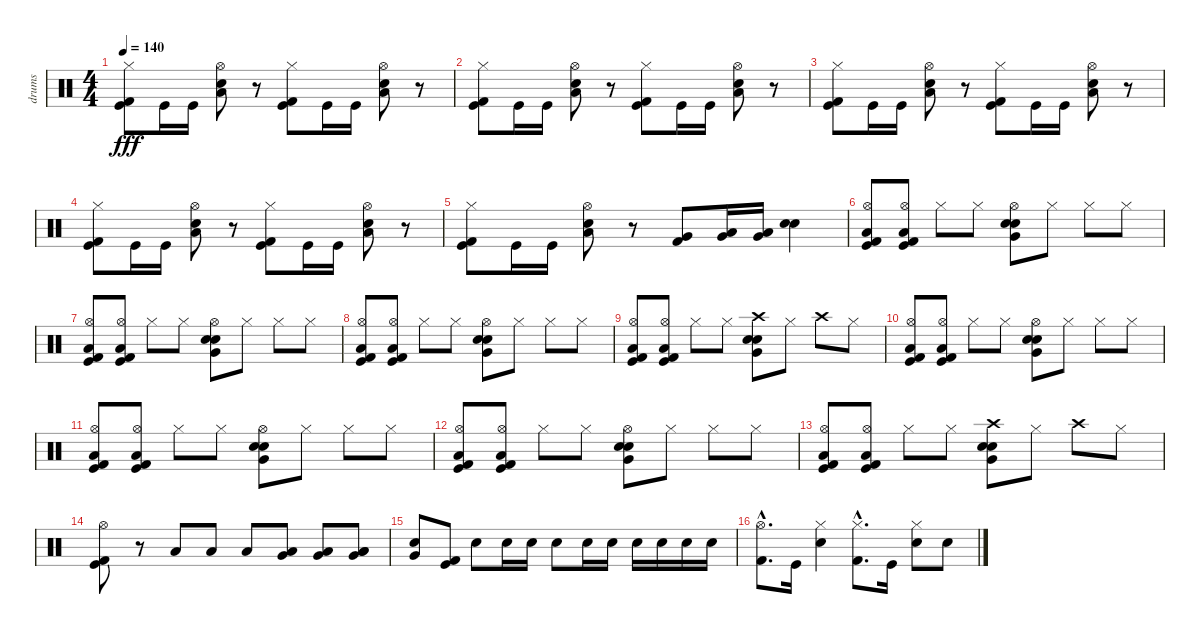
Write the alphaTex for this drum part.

\track ("drums" "drums") {instrument percussion}
\staff {score}
\articulation defaults
\ts (4 4)
\tempo 140
\clef neutral
\ks c
("Hi-Hat (closed)" "Kick (hit)" "Kick (hit) 2").8{dy fff} "Kick (hit)".16 "Kick (hit)".16 ("Hi-Hat (open)" "Low Tom (hit)" "Snare (hit) 2").8 r.8 ("Hi-Hat (closed)" "Kick (hit)" "Kick (hit) 2").8 "Kick (hit)".16 "Kick (hit)".16 ("Hi-Hat (open)" "Low Tom (hit)" "Snare (hit) 2").8 r.8 |
("Hi-Hat (closed)" "Kick (hit)" "Kick (hit) 2").8 "Kick (hit)".16 "Kick (hit)".16 ("Hi-Hat (open)" "Low Tom (hit)" "Snare (hit) 2").8 r.8 ("Hi-Hat (closed)" "Kick (hit)" "Kick (hit) 2").8 "Kick (hit)".16 "Kick (hit)".16 ("Hi-Hat (open)" "Low Tom (hit)" "Snare (hit) 2").8 r.8 |
("Hi-Hat (closed)" "Kick (hit)" "Kick (hit) 2").8 "Kick (hit)".16 "Kick (hit)".16 ("Hi-Hat (open)" "Low Tom (hit)" "Snare (hit) 2").8 r.8 ("Hi-Hat (closed)" "Kick (hit)" "Kick (hit) 2").8 "Kick (hit)".16 "Kick (hit)".16 ("Hi-Hat (open)" "Low Tom (hit)" "Snare (hit) 2").8 r.8 |
("Hi-Hat (closed)" "Kick (hit)" "Kick (hit) 2").8 "Kick (hit)".16 "Kick (hit)".16 ("Hi-Hat (open)" "Low Tom (hit)" "Snare (hit) 2").8 r.8 ("Hi-Hat (closed)" "Kick (hit)" "Kick (hit) 2").8 "Kick (hit)".16 "Kick (hit)".16 ("Hi-Hat (open)" "Low Tom (hit)" "Snare (hit) 2").8 r.8 |
("Hi-Hat (closed)" "Kick (hit) 2" "Kick (hit)").8 "Kick (hit)".16 "Kick (hit)".16 ("Hi-Hat (open)" "Low Tom (hit)" "Snare (hit) 2").8 r.8 ("Very Low Tom (hit)" "Kick (hit) 2").8 ("Low Floor Tom (hit)" "Very Low Tom (hit)").16 ("Very Low Tom (hit)" "Low Tom (hit)").16 ("Electric Snare (hit)" "Snare (hit) 2").4 |
("Hi-Hat (open)" "Low Floor Tom (hit)" "Kick (hit)" "Kick (hit) 2").8 ("Hi-Hat (open)" "Low Floor Tom (hit)" "Kick (hit)" "Kick (hit) 2").8 "Hi-Hat (closed)".8 "Hi-Hat (closed)".8 ("Hi-Hat (open)" "Very Low Tom (hit)" "Snare (hit) 2" "Electric Snare (hit)").8 "Hi-Hat (closed)".8 "Hi-Hat (closed)".8 "Hi-Hat (closed)".8 |
("Hi-Hat (open)" "Low Floor Tom (hit)" "Kick (hit)" "Kick (hit) 2").8 ("Hi-Hat (open)" "Low Floor Tom (hit)" "Kick (hit)" "Kick (hit) 2").8 "Hi-Hat (closed)".8 "Hi-Hat (closed)".8 ("Hi-Hat (open)" "Very Low Tom (hit)" "Snare (hit) 2" "Electric Snare (hit)").8 "Hi-Hat (closed)".8 "Hi-Hat (closed)".8 "Hi-Hat (closed)".8 |
("Hi-Hat (open)" "Low Floor Tom (hit)" "Kick (hit)" "Kick (hit) 2").8 ("Hi-Hat (open)" "Low Floor Tom (hit)" "Kick (hit)" "Kick (hit) 2").8 "Hi-Hat (closed)".8 "Hi-Hat (closed)".8 ("Hi-Hat (open)" "Very Low Tom (hit)" "Snare (hit) 2" "Electric Snare (hit)").8 "Hi-Hat (closed)".8 "Hi-Hat (closed)".8 "Hi-Hat (closed)".8 |
("Hi-Hat (open)" "Low Floor Tom (hit)" "Kick (hit)" "Kick (hit) 2").8 ("Hi-Hat (open)" "Low Floor Tom (hit)" "Kick (hit)" "Kick (hit) 2").8 "Hi-Hat (closed)".8 "Hi-Hat (closed)".8 ("Crash high (hit)" "Very Low Tom (hit)" "Snare (hit) 2" "Electric Snare (hit)").8 "Hi-Hat (closed)".8 "Crash high (hit)".8 "Hi-Hat (closed)".8 |
("Hi-Hat (open)" "Low Floor Tom (hit)" "Kick (hit)" "Kick (hit) 2").8 ("Hi-Hat (open)" "Low Floor Tom (hit)" "Kick (hit)" "Kick (hit) 2").8 "Hi-Hat (closed)".8 "Hi-Hat (closed)".8 ("Hi-Hat (open)" "Very Low Tom (hit)" "Snare (hit) 2" "Electric Snare (hit)").8 "Hi-Hat (closed)".8 "Hi-Hat (closed)".8 "Hi-Hat (closed)".8 |
("Hi-Hat (open)" "Low Floor Tom (hit)" "Kick (hit)" "Kick (hit) 2").8 ("Hi-Hat (open)" "Low Floor Tom (hit)" "Kick (hit)" "Kick (hit) 2").8 "Hi-Hat (closed)".8 "Hi-Hat (closed)".8 ("Hi-Hat (open)" "Very Low Tom (hit)" "Snare (hit) 2" "Electric Snare (hit)").8 "Hi-Hat (closed)".8 "Hi-Hat (closed)".8 "Hi-Hat (closed)".8 |
("Hi-Hat (open)" "Low Floor Tom (hit)" "Kick (hit)" "Kick (hit) 2").8 ("Hi-Hat (open)" "Low Floor Tom (hit)" "Kick (hit)" "Kick (hit) 2").8 "Hi-Hat (closed)".8 "Hi-Hat (closed)".8 ("Hi-Hat (open)" "Very Low Tom (hit)" "Snare (hit) 2" "Electric Snare (hit)").8 "Hi-Hat (closed)".8 "Hi-Hat (closed)".8 "Hi-Hat (closed)".8 |
("Hi-Hat (open)" "Low Floor Tom (hit)" "Kick (hit)" "Kick (hit) 2").8 ("Hi-Hat (open)" "Low Floor Tom (hit)" "Kick (hit)" "Kick (hit) 2").8 "Hi-Hat (closed)".8 "Hi-Hat (closed)".8 ("Crash high (hit)" "Very Low Tom (hit)" "Snare (hit) 2" "Electric Snare (hit)").8 "Hi-Hat (closed)".8 "Crash high (hit)".8 "Hi-Hat (closed)".8 |
("Kick (hit)" "Hi-Hat (open)" "Kick (hit) 2").8 r.8 "Low Floor Tom (hit)".8 "Low Floor Tom (hit)".8 "Low Floor Tom (hit)".8 ("Low Floor Tom (hit)" "Very Low Tom (hit)").8 ("Low Floor Tom (hit)" "Very Low Tom (hit)").8 ("Low Tom (hit)" "Very Low Tom (hit)" "Low Floor Tom (hit)").8 |
("Electric Snare (hit)" "Very Low Tom (hit)").8 ("Kick (hit)" "Kick (hit) 2").8 "Snare (hit) 2".8 "Snare (hit) 2".16 "Snare (hit) 2".16 "Snare (hit) 2".8 "Snare (hit) 2".16 "Snare (hit) 2".16 "Snare (hit) 2".16 "Snare (hit) 2".16 "Snare (hit) 2".16 "Snare (hit) 2".16 |
("Hi-Hat (open)"{hac} "Kick (hit) 2"{hac}).8{d} "Kick (hit)".16 ("Hi-Hat (closed)" "Snare (hit) 2").4 ("Hi-Hat (closed)"{hac} "Kick (hit) 2"{hac}).8{d} "Kick (hit)".16 ("Hi-Hat (closed)" "Snare (hit) 2").8 "Snare (hit) 2".8
